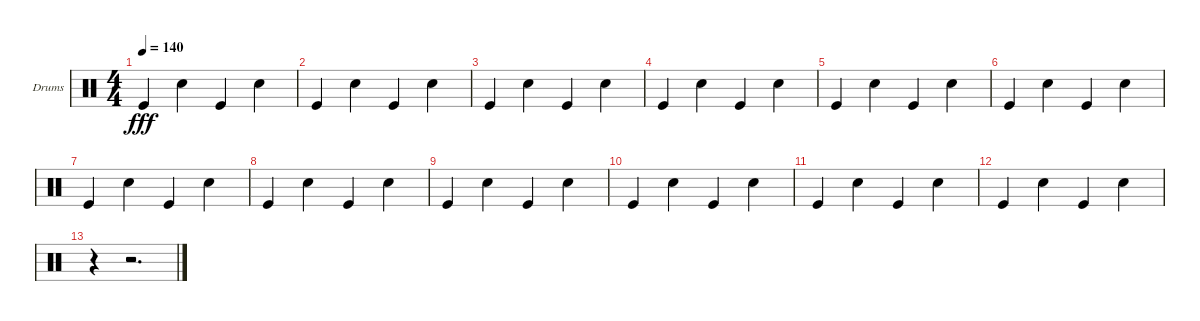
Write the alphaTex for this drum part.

\bracketExtendMode groupsimilarinstruments
\firstSystemTrackNameOrientation horizontal
\otherSystemsTrackNameOrientation horizontal
\track ("Drumkit" "Drums") {instrument percussion}
\staff {score}
\articulation defaults
\ts (4 4)
\tempo 140
\clef neutral
\ks c "Kick (hit)".4{dy fff} "Snare (hit) 2".4 "Kick (hit)".4 "Snare (hit) 2".4
|
"Kick (hit)".4 "Snare (hit) 2".4 "Kick (hit)".4 "Snare (hit) 2".4 |
"Kick (hit)".4 "Snare (hit) 2".4 "Kick (hit)".4 "Snare (hit) 2".4 |
"Kick (hit)".4 "Snare (hit) 2".4 "Kick (hit)".4 "Snare (hit) 2".4 |
"Kick (hit)".4 "Snare (hit) 2".4 "Kick (hit)".4 "Snare (hit) 2".4 |
"Kick (hit)".4 "Snare (hit) 2".4 "Kick (hit)".4 "Snare (hit) 2".4 |
"Kick (hit)".4 "Snare (hit) 2".4 "Kick (hit)".4 "Snare (hit) 2".4 |
"Kick (hit)".4 "Snare (hit) 2".4 "Kick (hit)".4 "Snare (hit) 2".4 |
"Kick (hit)".4 "Snare (hit) 2".4 "Kick (hit)".4 "Snare (hit) 2".4 |
"Kick (hit)".4 "Snare (hit) 2".4 "Kick (hit)".4 "Snare (hit) 2".4 |
"Kick (hit)".4 "Snare (hit) 2".4 "Kick (hit)".4 "Snare (hit) 2".4 |
"Kick (hit)".4 "Snare (hit) 2".4 "Kick (hit)".4 "Snare (hit) 2".4 |
r.4 r.2{d}
